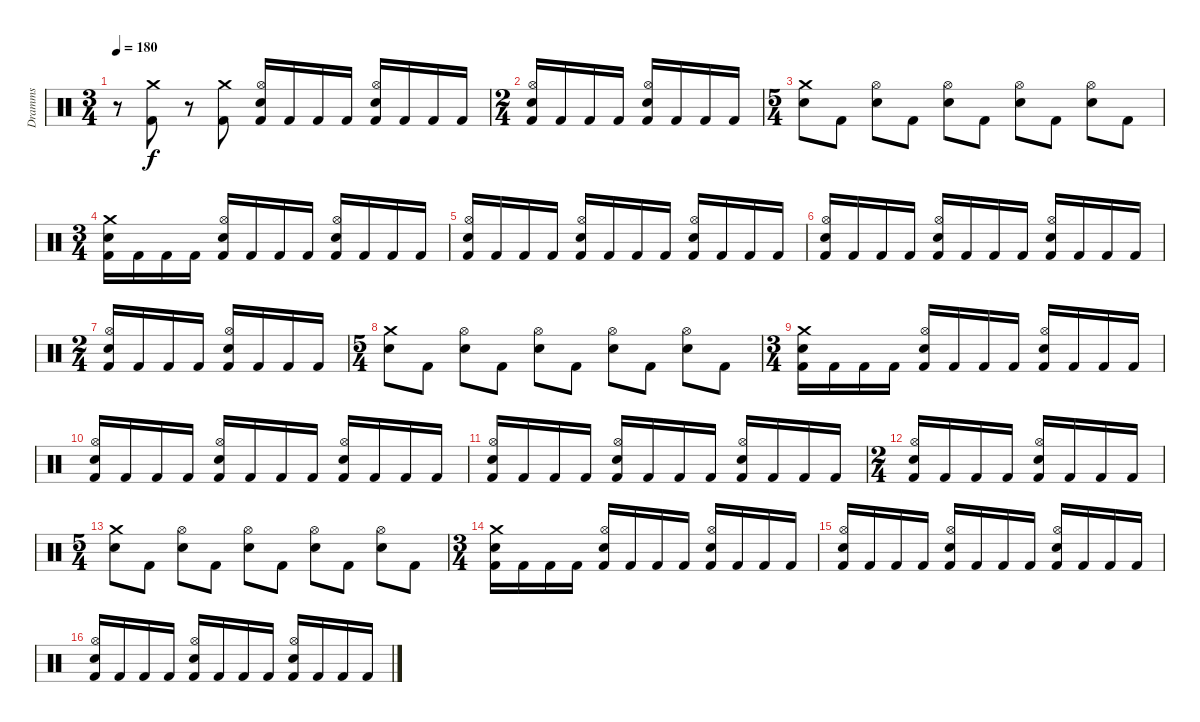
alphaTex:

\track ("Dramms" "Dramms") {instrument percussion}
\staff {score}
\articulation defaults
\ts (3 4)
\tempo 180
\clef neutral
\ks c
r.8{dy f} ("Crash medium (hit)" "Kick (hit) 2").8 r.8 ("Crash medium (hit)" "Kick (hit) 2").8 ("Hi-Hat (open)" "Electric Snare (hit)" "Kick (hit) 2").16 "Kick (hit) 2".16 "Kick (hit) 2".16 "Kick (hit) 2".16 ("Hi-Hat (open)" "Electric Snare (hit)" "Kick (hit) 2").16 "Kick (hit) 2".16 "Kick (hit) 2".16 "Kick (hit) 2".16 |
\ts (2 4)
("Hi-Hat (open)" "Electric Snare (hit)" "Kick (hit) 2").16 "Kick (hit) 2".16 "Kick (hit) 2".16 "Kick (hit) 2".16 ("Hi-Hat (open)" "Electric Snare (hit)" "Kick (hit) 2").16 "Kick (hit) 2".16 "Kick (hit) 2".16 "Kick (hit) 2".16 |
\ts (5 4)
("Crash medium (hit)" "Electric Snare (hit)").8 "Kick (hit) 2".8 ("Hi-Hat (open)" "Electric Snare (hit)").8 "Kick (hit) 2".8 ("Hi-Hat (open)" "Electric Snare (hit)").8 "Kick (hit) 2".8 ("Hi-Hat (open)" "Electric Snare (hit)").8 "Kick (hit) 2".8 ("Hi-Hat (open)" "Electric Snare (hit)").8 "Kick (hit) 2".8 |
\ts (3 4)
("Crash medium (hit)" "Electric Snare (hit)" "Kick (hit) 2").16 "Kick (hit) 2".16 "Kick (hit) 2".16 "Kick (hit) 2".16 ("Hi-Hat (open)" "Electric Snare (hit)" "Kick (hit) 2").16 "Kick (hit) 2".16 "Kick (hit) 2".16 "Kick (hit) 2".16 ("Hi-Hat (open)" "Electric Snare (hit)" "Kick (hit) 2").16 "Kick (hit) 2".16 "Kick (hit) 2".16 "Kick (hit) 2".16 |
("Hi-Hat (open)" "Electric Snare (hit)" "Kick (hit) 2").16 "Kick (hit) 2".16 "Kick (hit) 2".16 "Kick (hit) 2".16 ("Hi-Hat (open)" "Electric Snare (hit)" "Kick (hit) 2").16 "Kick (hit) 2".16 "Kick (hit) 2".16 "Kick (hit) 2".16 ("Hi-Hat (open)" "Electric Snare (hit)" "Kick (hit) 2").16 "Kick (hit) 2".16 "Kick (hit) 2".16 "Kick (hit) 2".16 |
("Hi-Hat (open)" "Electric Snare (hit)" "Kick (hit) 2").16 "Kick (hit) 2".16 "Kick (hit) 2".16 "Kick (hit) 2".16 ("Hi-Hat (open)" "Electric Snare (hit)" "Kick (hit) 2").16 "Kick (hit) 2".16 "Kick (hit) 2".16 "Kick (hit) 2".16 ("Hi-Hat (open)" "Electric Snare (hit)" "Kick (hit) 2").16 "Kick (hit) 2".16 "Kick (hit) 2".16 "Kick (hit) 2".16 |
\ts (2 4)
("Hi-Hat (open)" "Electric Snare (hit)" "Kick (hit) 2").16 "Kick (hit) 2".16 "Kick (hit) 2".16 "Kick (hit) 2".16 ("Hi-Hat (open)" "Electric Snare (hit)" "Kick (hit) 2").16 "Kick (hit) 2".16 "Kick (hit) 2".16 "Kick (hit) 2".16 |
\ts (5 4)
("Crash medium (hit)" "Electric Snare (hit)").8 "Kick (hit) 2".8 ("Hi-Hat (open)" "Electric Snare (hit)").8 "Kick (hit) 2".8 ("Hi-Hat (open)" "Electric Snare (hit)").8 "Kick (hit) 2".8 ("Hi-Hat (open)" "Electric Snare (hit)").8 "Kick (hit) 2".8 ("Hi-Hat (open)" "Electric Snare (hit)").8 "Kick (hit) 2".8 |
\ts (3 4)
("Crash medium (hit)" "Electric Snare (hit)" "Kick (hit) 2").16 "Kick (hit) 2".16 "Kick (hit) 2".16 "Kick (hit) 2".16 ("Hi-Hat (open)" "Electric Snare (hit)" "Kick (hit) 2").16 "Kick (hit) 2".16 "Kick (hit) 2".16 "Kick (hit) 2".16 ("Hi-Hat (open)" "Electric Snare (hit)" "Kick (hit) 2").16 "Kick (hit) 2".16 "Kick (hit) 2".16 "Kick (hit) 2".16 |
("Hi-Hat (open)" "Electric Snare (hit)" "Kick (hit) 2").16 "Kick (hit) 2".16 "Kick (hit) 2".16 "Kick (hit) 2".16 ("Hi-Hat (open)" "Electric Snare (hit)" "Kick (hit) 2").16 "Kick (hit) 2".16 "Kick (hit) 2".16 "Kick (hit) 2".16 ("Hi-Hat (open)" "Electric Snare (hit)" "Kick (hit) 2").16 "Kick (hit) 2".16 "Kick (hit) 2".16 "Kick (hit) 2".16 |
("Hi-Hat (open)" "Electric Snare (hit)" "Kick (hit) 2").16 "Kick (hit) 2".16 "Kick (hit) 2".16 "Kick (hit) 2".16 ("Hi-Hat (open)" "Electric Snare (hit)" "Kick (hit) 2").16 "Kick (hit) 2".16 "Kick (hit) 2".16 "Kick (hit) 2".16 ("Hi-Hat (open)" "Electric Snare (hit)" "Kick (hit) 2").16 "Kick (hit) 2".16 "Kick (hit) 2".16 "Kick (hit) 2".16 |
\ts (2 4)
("Hi-Hat (open)" "Electric Snare (hit)" "Kick (hit) 2").16 "Kick (hit) 2".16 "Kick (hit) 2".16 "Kick (hit) 2".16 ("Hi-Hat (open)" "Electric Snare (hit)" "Kick (hit) 2").16 "Kick (hit) 2".16 "Kick (hit) 2".16 "Kick (hit) 2".16 |
\ts (5 4)
("Crash medium (hit)" "Electric Snare (hit)").8 "Kick (hit) 2".8 ("Hi-Hat (open)" "Electric Snare (hit)").8 "Kick (hit) 2".8 ("Hi-Hat (open)" "Electric Snare (hit)").8 "Kick (hit) 2".8 ("Hi-Hat (open)" "Electric Snare (hit)").8 "Kick (hit) 2".8 ("Hi-Hat (open)" "Electric Snare (hit)").8 "Kick (hit) 2".8 |
\ts (3 4)
("Crash medium (hit)" "Electric Snare (hit)" "Kick (hit) 2").16 "Kick (hit) 2".16 "Kick (hit) 2".16 "Kick (hit) 2".16 ("Hi-Hat (open)" "Electric Snare (hit)" "Kick (hit) 2").16 "Kick (hit) 2".16 "Kick (hit) 2".16 "Kick (hit) 2".16 ("Hi-Hat (open)" "Electric Snare (hit)" "Kick (hit) 2").16 "Kick (hit) 2".16 "Kick (hit) 2".16 "Kick (hit) 2".16 |
("Hi-Hat (open)" "Electric Snare (hit)" "Kick (hit) 2").16 "Kick (hit) 2".16 "Kick (hit) 2".16 "Kick (hit) 2".16 ("Hi-Hat (open)" "Electric Snare (hit)" "Kick (hit) 2").16 "Kick (hit) 2".16 "Kick (hit) 2".16 "Kick (hit) 2".16 ("Hi-Hat (open)" "Electric Snare (hit)" "Kick (hit) 2").16 "Kick (hit) 2".16 "Kick (hit) 2".16 "Kick (hit) 2".16 |
("Hi-Hat (open)" "Electric Snare (hit)" "Kick (hit) 2").16 "Kick (hit) 2".16 "Kick (hit) 2".16 "Kick (hit) 2".16 ("Hi-Hat (open)" "Electric Snare (hit)" "Kick (hit) 2").16 "Kick (hit) 2".16 "Kick (hit) 2".16 "Kick (hit) 2".16 ("Hi-Hat (open)" "Electric Snare (hit)" "Kick (hit) 2").16 "Kick (hit) 2".16 "Kick (hit) 2".16 "Kick (hit) 2".16
